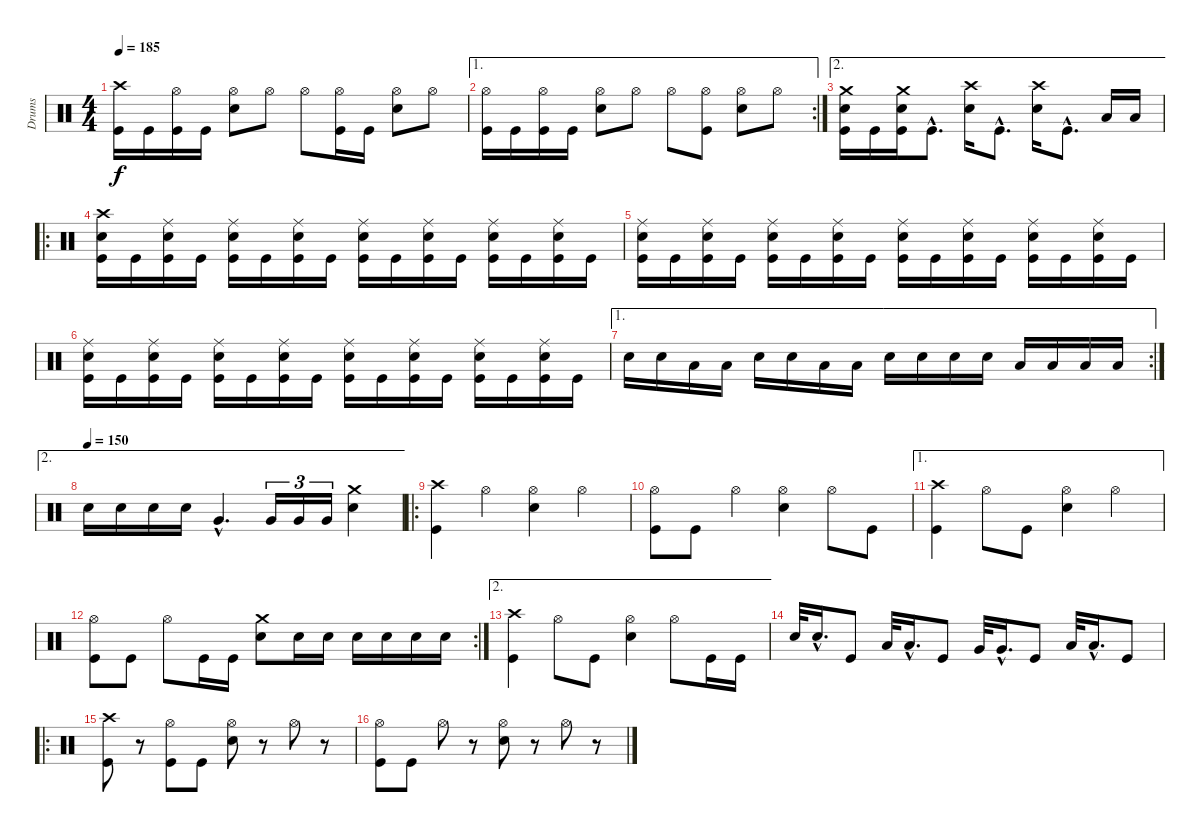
\track ("Drums" "Drums") {instrument percussion}
\staff {score}
\articulation defaults
\ts (4 4)
\tempo 185
\clef neutral
\ks c
("Crash high (hit)" "Kick (hit)").16{dy f} "Kick (hit)".16 ("Hi-Hat (open)" "Kick (hit)").16 "Kick (hit)".16 ("Hi-Hat (open)" "Electric Snare (hit)").8 "Hi-Hat (open)".8 "Hi-Hat (open)".8 ("Hi-Hat (open)" "Kick (hit)").16 "Kick (hit)".16 ("Hi-Hat (open)" "Electric Snare (hit)").8 "Hi-Hat (open)".8 |
\ae 1
\rc 2
("Hi-Hat (open)" "Kick (hit)").16 "Kick (hit)".16 ("Hi-Hat (open)" "Kick (hit)").16 "Kick (hit)".16 ("Hi-Hat (open)" "Electric Snare (hit)").8 "Hi-Hat (open)".8 "Hi-Hat (open)".8 ("Hi-Hat (open)" "Kick (hit)").8 ("Hi-Hat (open)" "Electric Snare (hit)").8 "Hi-Hat (open)".8 |
\ae 2
("Crash medium (hit)" "Electric Snare (hit)" "Kick (hit)").16 "Kick (hit)".16 ("Crash medium (hit)" "Electric Snare (hit)" "Kick (hit)").16 "Kick (hit)"{hac}.8{d} ("Crash high (hit)" "Electric Snare (hit)").16 "Kick (hit)"{hac}.8{d} ("Crash high (hit)" "Electric Snare (hit)").16 "Kick (hit)"{hac}.8{d} "Low Tom (hit)".16 "Low Tom (hit)".16 |
\ro
("Crash high (hit)" "Electric Snare (hit)" "Kick (hit)").16 "Kick (hit)".16 ("Ride (middle)" "Electric Snare (hit)" "Kick (hit)").16 "Kick (hit)".16 ("Ride (middle)" "Electric Snare (hit)" "Kick (hit)").16 "Kick (hit)".16 ("Ride (middle)" "Electric Snare (hit)" "Kick (hit)").16 "Kick (hit)".16 ("Ride (middle)" "Electric Snare (hit)" "Kick (hit)").16 "Kick (hit)".16 ("Ride (middle)" "Electric Snare (hit)" "Kick (hit)").16 "Kick (hit)".16 ("Ride (middle)" "Electric Snare (hit)" "Kick (hit)").16 "Kick (hit)".16 ("Ride (middle)" "Electric Snare (hit)" "Kick (hit)").16 "Kick (hit)".16 |
("Ride (middle)" "Electric Snare (hit)" "Kick (hit)").16 "Kick (hit)".16 ("Ride (middle)" "Electric Snare (hit)" "Kick (hit)").16 "Kick (hit)".16 ("Ride (middle)" "Electric Snare (hit)" "Kick (hit)").16 "Kick (hit)".16 ("Ride (middle)" "Electric Snare (hit)" "Kick (hit)").16 "Kick (hit)".16 ("Ride (middle)" "Electric Snare (hit)" "Kick (hit)").16 "Kick (hit)".16 ("Ride (middle)" "Electric Snare (hit)" "Kick (hit)").16 "Kick (hit)".16 ("Ride (middle)" "Electric Snare (hit)" "Kick (hit)").16 "Kick (hit)".16 ("Ride (middle)" "Electric Snare (hit)" "Kick (hit)").16 "Kick (hit)".16 |
("Ride (middle)" "Electric Snare (hit)" "Kick (hit)").16 "Kick (hit)".16 ("Ride (middle)" "Electric Snare (hit)" "Kick (hit)").16 "Kick (hit)".16 ("Ride (middle)" "Electric Snare (hit)" "Kick (hit)").16 "Kick (hit)".16 ("Ride (middle)" "Electric Snare (hit)" "Kick (hit)").16 "Kick (hit)".16 ("Ride (middle)" "Electric Snare (hit)" "Kick (hit)").16 "Kick (hit)".16 ("Ride (middle)" "Electric Snare (hit)" "Kick (hit)").16 "Kick (hit)".16 ("Ride (middle)" "Electric Snare (hit)" "Kick (hit)").16 "Kick (hit)".16 ("Ride (middle)" "Electric Snare (hit)" "Kick (hit)").16 "Kick (hit)".16 |
\ae 1
\rc 2 "Electric Snare (hit)".16 "Electric Snare (hit)".16 "Low Tom (hit)".16 "Low Tom (hit)".16 "Electric Snare (hit)".16 "Electric Snare (hit)".16 "Low Tom (hit)".16 "Low Tom (hit)".16 "Electric Snare (hit)".16 "Electric Snare (hit)".16 "Electric Snare (hit)".16 "Electric Snare (hit)".16 "Low Tom (hit)".16 "Low Tom (hit)".16 "Low Tom (hit)".16 "Low Tom (hit)".16
|
\ae 2
\tempo (150)
"Electric Snare (hit)".16 "Electric Snare (hit)".16 "Electric Snare (hit)".16 "Electric Snare (hit)".16 "Very Low Tom (hit)"{hac}.4{d} "Very Low Tom (hit)".16{tu (3 2)} "Very Low Tom (hit)".16{tu (3 2)} "Very Low Tom (hit)".16{tu (3 2)} ("Crash medium (hit)" "Electric Snare (hit)").4 |
\ro
("Crash high (hit)" "Kick (hit)").4 "Hi-Hat (open)".4 ("Hi-Hat (open)" "Electric Snare (hit)").4 "Hi-Hat (open)".4 |
("Hi-Hat (open)" "Kick (hit)").8 "Kick (hit)".8 "Hi-Hat (open)".4 ("Hi-Hat (open)" "Electric Snare (hit)").4 "Hi-Hat (open)".8 "Kick (hit)".8 |
\ae 1
("Crash high (hit)" "Kick (hit)").4 "Hi-Hat (open)".8 "Kick (hit)".8 ("Hi-Hat (open)" "Electric Snare (hit)").4 "Hi-Hat (open)".4 |
\rc 2
("Hi-Hat (open)" "Kick (hit)").8 "Kick (hit)".8 "Hi-Hat (open)".8 "Kick (hit)".16 "Kick (hit)".16 ("Crash medium (hit)" "Electric Snare (hit)").8 "Electric Snare (hit)".16 "Electric Snare (hit)".16 "Electric Snare (hit)".16 "Electric Snare (hit)".16 "Electric Snare (hit)".16 "Electric Snare (hit)".16 |
\ae 2
("Crash high (hit)" "Kick (hit)").4 "Hi-Hat (open)".8 "Kick (hit)".8 ("Hi-Hat (open)" "Electric Snare (hit)").4 "Hi-Hat (open)".8 "Kick (hit)".16 "Kick (hit)".16 |
"Electric Snare (hit)".32 "Electric Snare (hit)"{hac}.16{d} "Kick (hit)".8 "Low Tom (hit)".32 "Low Tom (hit)"{hac}.16{d} "Kick (hit)".8 "Very Low Tom (hit)".32 "Very Low Tom (hit)"{hac}.16{d} "Kick (hit)".8 "Low Floor Tom (hit)".32 "Low Floor Tom (hit)"{hac}.16{d} "Kick (hit)".8 |
\ro
("Crash high (hit)" "Kick (hit)").8 r.8 ("Hi-Hat (open)" "Kick (hit)").8 "Kick (hit)".8 ("Hi-Hat (open)" "Electric Snare (hit)").8 r.8 "Hi-Hat (open)".8 r.8 |
("Hi-Hat (open)" "Kick (hit)").8 "Kick (hit)".8 "Hi-Hat (open)".8 r.8 ("Hi-Hat (open)" "Electric Snare (hit)").8 r.8 "Hi-Hat (open)".8 r.8
